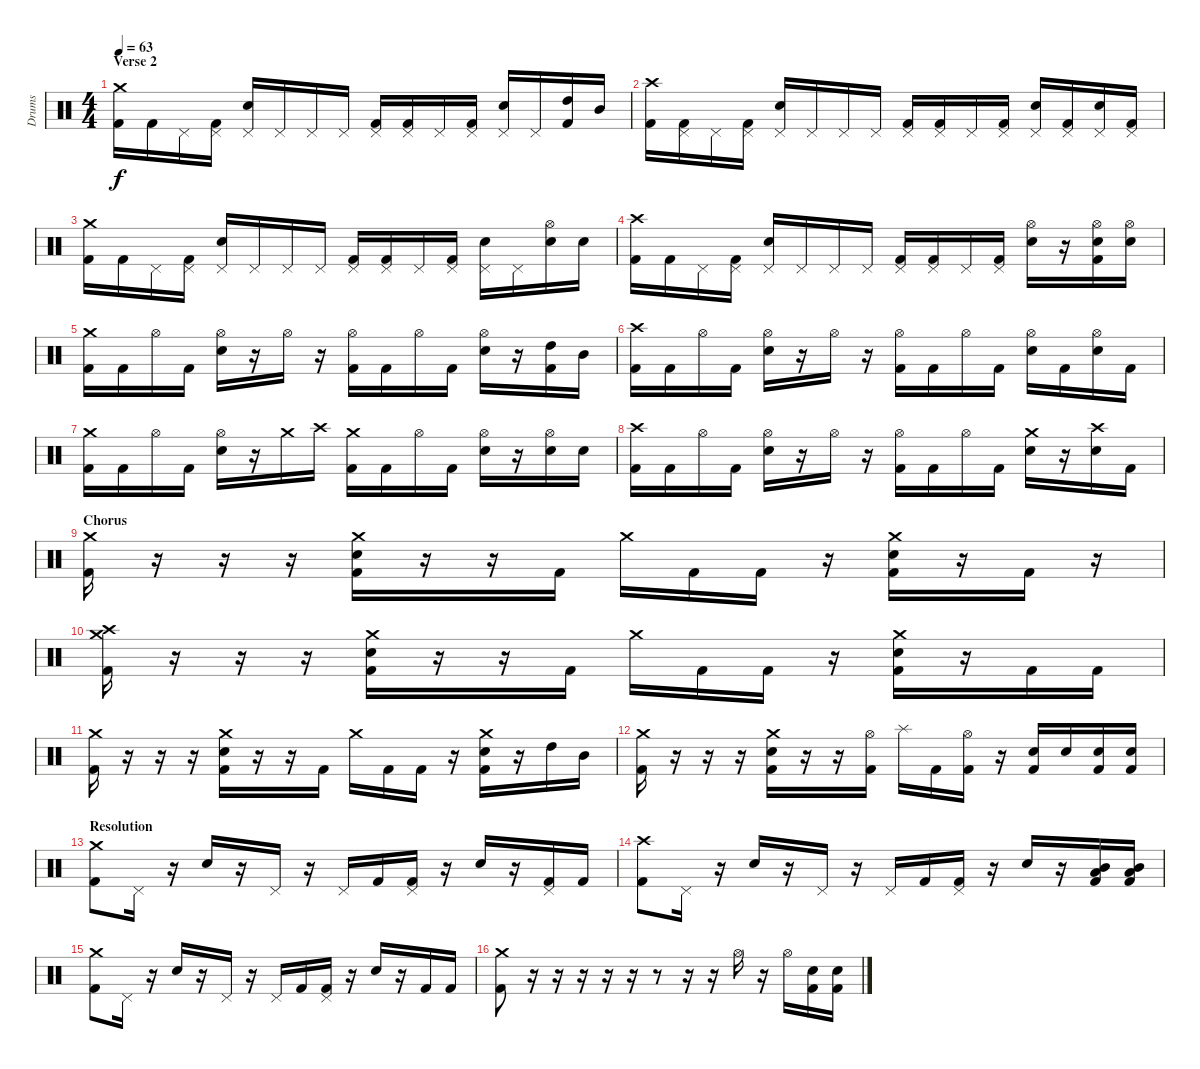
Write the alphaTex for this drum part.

\track ("Drums" "Drums") {instrument percussion}
\staff {score}
\articulation defaults
\ts (4 4)
\section ("" "Verse 2")
\tempo 63
\clef neutral
\ks c
("Crash medium (hit)" "Kick (hit) 2").16{dy f} "Kick (hit) 2".16 "Pedal Hi-Hat (hit)".16 ("Pedal Hi-Hat (hit)" "Kick (hit) 2").16 ("Pedal Hi-Hat (hit)" "Electric Snare (hit)").16 "Pedal Hi-Hat (hit)".16 "Pedal Hi-Hat (hit)".16 "Pedal Hi-Hat (hit)".16 ("Pedal Hi-Hat (hit)" "Kick (hit) 2").16 ("Pedal Hi-Hat (hit)" "Kick (hit) 2").16 "Pedal Hi-Hat (hit)".16 ("Pedal Hi-Hat (hit)" "Kick (hit) 2").16 ("Pedal Hi-Hat (hit)" "Electric Snare (hit)").16 "Pedal Hi-Hat (hit)".16 ("High Tom (hit)" "Kick (hit) 2").16 "Mid Tom (hit)".16 |
("Crash high (hit)" "Kick (hit) 2").16 ("Pedal Hi-Hat (hit)" "Kick (hit) 2").16 "Pedal Hi-Hat (hit)".16 ("Pedal Hi-Hat (hit)" "Kick (hit) 2").16 ("Pedal Hi-Hat (hit)" "Electric Snare (hit)").16 "Pedal Hi-Hat (hit)".16 "Pedal Hi-Hat (hit)".16 "Pedal Hi-Hat (hit)".16 ("Pedal Hi-Hat (hit)" "Kick (hit) 2").16 ("Pedal Hi-Hat (hit)" "Kick (hit) 2").16 "Pedal Hi-Hat (hit)".16 ("Pedal Hi-Hat (hit)" "Kick (hit) 2").16 ("Pedal Hi-Hat (hit)" "Electric Snare (hit)").16 ("Pedal Hi-Hat (hit)" "Kick (hit) 2").16 ("Pedal Hi-Hat (hit)" "Electric Snare (hit)").16 ("Pedal Hi-Hat (hit)" "Kick (hit) 2").16 |
("Crash medium (hit)" "Kick (hit) 2").16 "Kick (hit) 2".16 "Pedal Hi-Hat (hit)".16 ("Pedal Hi-Hat (hit)" "Kick (hit) 2").16 ("Pedal Hi-Hat (hit)" "Electric Snare (hit)").16 "Pedal Hi-Hat (hit)".16 "Pedal Hi-Hat (hit)".16 "Pedal Hi-Hat (hit)".16 ("Pedal Hi-Hat (hit)" "Kick (hit) 2").16 ("Pedal Hi-Hat (hit)" "Kick (hit) 2").16 "Pedal Hi-Hat (hit)".16 ("Pedal Hi-Hat (hit)" "Kick (hit) 2").16 ("Pedal Hi-Hat (hit)" "Electric Snare (hit)").16 "Pedal Hi-Hat (hit)".16 ("Hi-Hat (open)" "Electric Snare (hit)").16 "Electric Snare (hit)".16 |
("Crash high (hit)" "Kick (hit) 2").16 "Kick (hit) 2".16 "Pedal Hi-Hat (hit)".16 ("Pedal Hi-Hat (hit)" "Kick (hit) 2").16 ("Pedal Hi-Hat (hit)" "Electric Snare (hit)").16 "Pedal Hi-Hat (hit)".16 "Pedal Hi-Hat (hit)".16 "Pedal Hi-Hat (hit)".16 ("Pedal Hi-Hat (hit)" "Kick (hit) 2").16 ("Pedal Hi-Hat (hit)" "Kick (hit) 2").16 "Pedal Hi-Hat (hit)".16 ("Pedal Hi-Hat (hit)" "Kick (hit) 2").16 ("Hi-Hat (open)" "Electric Snare (hit)").16 r.16 ("Hi-Hat (open)" "Electric Snare (hit)" "Kick (hit) 2").16 ("Hi-Hat (open)" "Electric Snare (hit)").16 |
("Crash medium (hit)" "Kick (hit) 2").16 "Kick (hit) 2".16 "Hi-Hat (open)".16 "Kick (hit) 2".16 ("Hi-Hat (open)" "Electric Snare (hit)").16 r.16 "Hi-Hat (open)".16 r.16 ("Hi-Hat (open)" "Kick (hit) 2").16 "Kick (hit) 2".16 "Hi-Hat (open)".16 "Kick (hit) 2".16 ("Hi-Hat (open)" "Electric Snare (hit)").16 r.16 ("High Tom (hit)" "Kick (hit) 2").16 "Mid Tom (hit)".16 |
("Crash high (hit)" "Kick (hit) 2").16 "Kick (hit) 2".16 "Hi-Hat (open)".16 "Kick (hit) 2".16 ("Hi-Hat (open)" "Electric Snare (hit)").16 r.16 "Hi-Hat (open)".16 r.16 ("Hi-Hat (open)" "Kick (hit) 2").16 "Kick (hit) 2".16 "Hi-Hat (open)".16 "Kick (hit) 2".16 ("Hi-Hat (open)" "Electric Snare (hit)").16 "Kick (hit) 2".16 ("Hi-Hat (open)" "Electric Snare (hit)").16 "Kick (hit) 2".16 |
("Crash medium (hit)" "Kick (hit) 2").16 "Kick (hit) 2".16 "Hi-Hat (open)".16 "Kick (hit) 2".16 ("Hi-Hat (open)" "Electric Snare (hit)").16 r.16 "Crash medium (hit)".16 "Crash high (hit)".16 ("Crash medium (hit)" "Kick (hit) 2").16 "Kick (hit) 2".16 "Hi-Hat (open)".16 "Kick (hit) 2".16 ("Hi-Hat (open)" "Electric Snare (hit)").16 r.16 ("Hi-Hat (open)" "Electric Snare (hit)").16 "Electric Snare (hit)".16 |
("Crash high (hit)" "Kick (hit) 2").16 "Kick (hit) 2".16 "Hi-Hat (open)".16 "Kick (hit) 2".16 ("Hi-Hat (open)" "Electric Snare (hit)").16 r.16 "Hi-Hat (open)".16 r.16 ("Hi-Hat (open)" "Kick (hit) 2").16 "Kick (hit) 2".16 "Hi-Hat (open)".16 "Kick (hit) 2".16 ("Crash medium (hit)" "Electric Snare (hit)").16 r.16 ("Crash high (hit)" "Electric Snare (hit)").16 "Kick (hit) 2".16 |
\section ("" "Chorus")
("Crash medium (hit)" "Kick (hit) 2").16 r.16 r.16 r.16 ("Crash medium (hit)" "Electric Snare (hit)" "Kick (hit) 2").16 r.16 r.16 "Kick (hit) 2".16 "Crash medium (hit)".16 "Kick (hit) 2".16 "Kick (hit) 2".16 r.16 ("Crash medium (hit)" "Electric Snare (hit)" "Kick (hit) 2").16 r.16 "Kick (hit) 2".16 r.16 |
("Crash medium (hit)" "Crash high (hit)" "Kick (hit) 2").16 r.16 r.16 r.16 ("Crash medium (hit)" "Electric Snare (hit)" "Kick (hit) 2").16 r.16 r.16 "Kick (hit) 2".16 "Crash medium (hit)".16 "Kick (hit) 2".16 "Kick (hit) 2".16 r.16 ("Crash medium (hit)" "Electric Snare (hit)" "Kick (hit) 2").16 r.16 "Kick (hit) 2".16 "Kick (hit) 2".16 |
("Crash medium (hit)" "Kick (hit) 2").16 r.16 r.16 r.16 ("Crash medium (hit)" "Electric Snare (hit)" "Kick (hit) 2").16 r.16 r.16 "Kick (hit) 2".16 "Crash medium (hit)".16 "Kick (hit) 2".16 "Kick (hit) 2".16 r.16 ("Crash medium (hit)" "Electric Snare (hit)" "Kick (hit) 2").16 r.16 "High Tom (hit)".16 "Mid Tom (hit)".16 |
("Crash medium (hit)" "Kick (hit) 2").16 r.16 r.16 r.16 ("Crash medium (hit)" "Electric Snare (hit)" "Kick (hit) 2").16 r.16 r.16 ("Hi-Hat (open)" "Kick (hit) 2").16 "Splash (hit)".16 "Kick (hit) 2".16 ("Hi-Hat (open)" "Kick (hit) 2").16 r.16 ("Electric Snare (hit)" "Kick (hit) 2").16 "Electric Snare (hit)".16 ("Electric Snare (hit)" "Kick (hit) 2").16 ("Electric Snare (hit)" "Kick (hit) 2").16 |
\section ("" "Resolution ")
("Crash medium (hit)" "Kick (hit) 2").8 "Pedal Hi-Hat (hit)".16 r.16 "Electric Snare (hit)".16 r.16 "Pedal Hi-Hat (hit)".16 r.16 "Pedal Hi-Hat (hit)".16 "Kick (hit) 2".16 ("Pedal Hi-Hat (hit)" "Kick (hit) 2").16 r.16 "Electric Snare (hit)".16 r.16 ("Pedal Hi-Hat (hit)" "Kick (hit) 2").16 "Kick (hit) 2".16 |
("Crash high (hit)" "Kick (hit) 2").8 "Pedal Hi-Hat (hit)".16 r.16 "Electric Snare (hit)".16 r.16 "Pedal Hi-Hat (hit)".16 r.16 "Pedal Hi-Hat (hit)".16 "Kick (hit) 2".16 ("Pedal Hi-Hat (hit)" "Kick (hit) 2").16 r.16 "Electric Snare (hit)".16 r.16 ("Mid Tom (hit)" "Low Tom (hit)" "Kick (hit) 2").16 ("Mid Tom (hit)" "Low Tom (hit)" "Kick (hit) 2").16 |
("Crash medium (hit)" "Kick (hit) 2").8 "Pedal Hi-Hat (hit)".16 r.16 "Electric Snare (hit)".16 r.16 "Pedal Hi-Hat (hit)".16 r.16 "Pedal Hi-Hat (hit)".16 "Kick (hit) 2".16 ("Pedal Hi-Hat (hit)" "Kick (hit) 2").16 r.16 "Electric Snare (hit)".16 r.16 "Kick (hit) 2".16 "Kick (hit) 2".16 |
("Crash medium (hit)" "Kick (hit) 2").8 r.16 r.16 r.16 r.16 r.16 r.8 r.16 r.16 "Hi-Hat (open)".16 r.16 "Hi-Hat (open)".16 ("Electric Snare (hit)" "Kick (hit) 2").16 ("Electric Snare (hit)" "Kick (hit) 2").16
